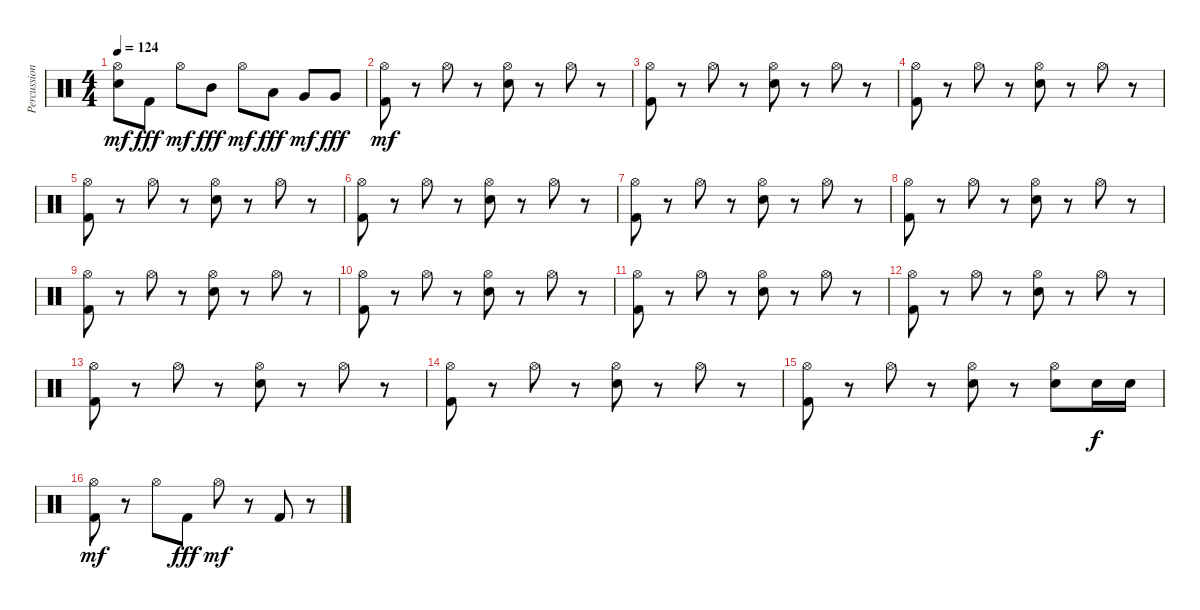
\track ("Percussion" "Percussion") {instrument percussion}
\staff {score}
\articulation defaults
\ts (4 4)
\tempo 124
\clef neutral
\ks c
("Electric Snare (hit)" "Hi-Hat (open)").8{dy mf} "Kick (hit) 2".8{dy fff} "Hi-Hat (open)".8{dy mf} "Mid Tom (hit)".8{dy fff} "Hi-Hat (open)".8{dy mf} "Low Tom (hit)".8{dy fff} "Very Low Tom (hit)".8{dy mf} "Very Low Tom (hit)".8{dy fff} |
("Kick (hit) 2" "Hi-Hat (open)").8{dy mf} r.8 "Hi-Hat (open)".8 r.8 ("Electric Snare (hit)" "Hi-Hat (open)").8 r.8 "Hi-Hat (open)".8 r.8 |
("Kick (hit) 2" "Hi-Hat (open)").8 r.8 "Hi-Hat (open)".8 r.8 ("Electric Snare (hit)" "Hi-Hat (open)").8 r.8 "Hi-Hat (open)".8 r.8 |
("Kick (hit) 2" "Hi-Hat (open)").8 r.8 "Hi-Hat (open)".8 r.8 ("Electric Snare (hit)" "Hi-Hat (open)").8 r.8 "Hi-Hat (open)".8 r.8 |
("Kick (hit) 2" "Hi-Hat (open)").8 r.8 "Hi-Hat (open)".8 r.8 ("Electric Snare (hit)" "Hi-Hat (open)").8 r.8 "Hi-Hat (open)".8 r.8 |
("Kick (hit) 2" "Hi-Hat (open)").8 r.8 "Hi-Hat (open)".8 r.8 ("Electric Snare (hit)" "Hi-Hat (open)").8 r.8 "Hi-Hat (open)".8 r.8 |
("Kick (hit) 2" "Hi-Hat (open)").8 r.8 "Hi-Hat (open)".8 r.8 ("Electric Snare (hit)" "Hi-Hat (open)").8 r.8 "Hi-Hat (open)".8 r.8 |
("Kick (hit) 2" "Hi-Hat (open)").8 r.8 "Hi-Hat (open)".8 r.8 ("Electric Snare (hit)" "Hi-Hat (open)").8 r.8 "Hi-Hat (open)".8 r.8 |
("Kick (hit) 2" "Hi-Hat (open)").8 r.8 "Hi-Hat (open)".8 r.8 ("Electric Snare (hit)" "Hi-Hat (open)").8 r.8 "Hi-Hat (open)".8 r.8 |
("Kick (hit) 2" "Hi-Hat (open)").8 r.8 "Hi-Hat (open)".8 r.8 ("Electric Snare (hit)" "Hi-Hat (open)").8 r.8 "Hi-Hat (open)".8 r.8 |
("Kick (hit) 2" "Hi-Hat (open)").8 r.8 "Hi-Hat (open)".8 r.8 ("Electric Snare (hit)" "Hi-Hat (open)").8 r.8 "Hi-Hat (open)".8 r.8 |
("Kick (hit) 2" "Hi-Hat (open)").8 r.8 "Hi-Hat (open)".8 r.8 ("Electric Snare (hit)" "Hi-Hat (open)").8 r.8 "Hi-Hat (open)".8 r.8 |
("Kick (hit) 2" "Hi-Hat (open)").8 r.8 "Hi-Hat (open)".8 r.8 ("Electric Snare (hit)" "Hi-Hat (open)").8 r.8 "Hi-Hat (open)".8 r.8 |
("Kick (hit) 2" "Hi-Hat (open)").8 r.8 "Hi-Hat (open)".8 r.8 ("Electric Snare (hit)" "Hi-Hat (open)").8 r.8 "Hi-Hat (open)".8 r.8 |
("Kick (hit) 2" "Hi-Hat (open)").8 r.8 "Hi-Hat (open)".8 r.8 ("Electric Snare (hit)" "Hi-Hat (open)").8 r.8 ("Electric Snare (hit)" "Hi-Hat (open)").8 "Electric Snare (hit)".16{dy f} "Electric Snare (hit)".16 |
("Kick (hit) 2" "Hi-Hat (open)").8{dy mf} r.8 "Hi-Hat (open)".8 "Kick (hit) 2".8{dy fff} "Hi-Hat (open)".8{dy mf} r.8 "Kick (hit) 2".8 r.8
